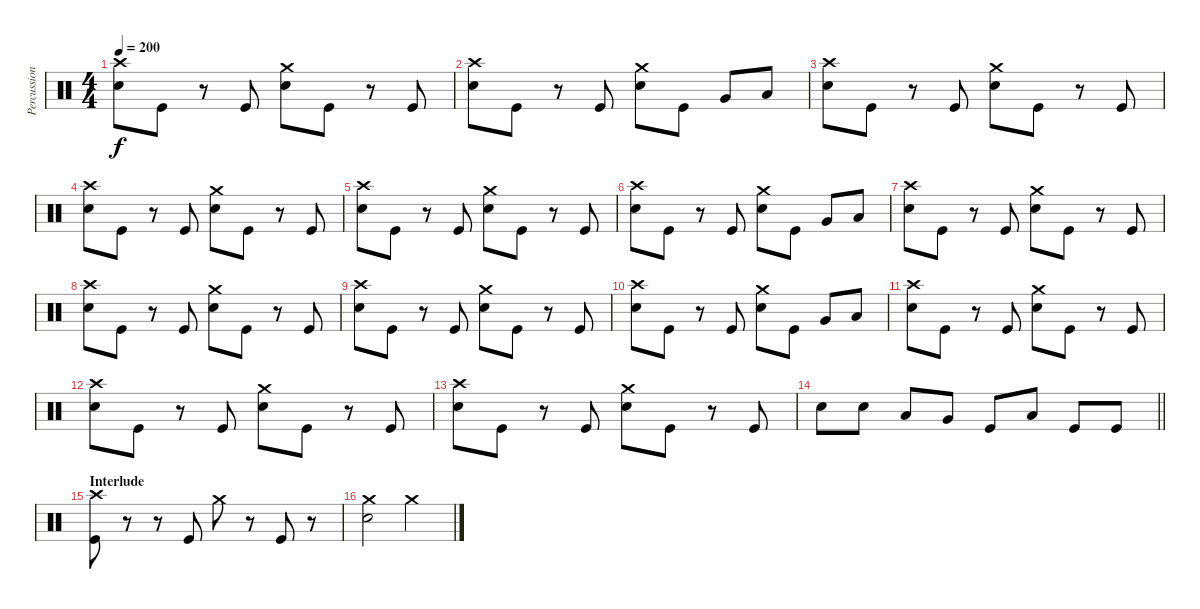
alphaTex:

\track ("Percussion" "Percussion") {instrument percussion}
\staff {score}
\articulation defaults
\ts (4 4)
\tempo 200
\clef neutral
\ks c
("Crash high (hit)" "Electric Snare (hit)").8{dy f} "Kick (hit)".8 r.8 "Kick (hit)".8 ("Crash medium (hit)" "Electric Snare (hit)").8 "Kick (hit)".8 r.8 "Kick (hit)".8 |
("Crash high (hit)" "Electric Snare (hit)").8 "Kick (hit)".8 r.8 "Kick (hit)".8 ("Crash medium (hit)" "Electric Snare (hit)").8 "Kick (hit)".8 "Very Low Tom (hit)".8 "Low Floor Tom (hit)".8 |
("Crash high (hit)" "Electric Snare (hit)").8 "Kick (hit)".8 r.8 "Kick (hit)".8 ("Crash medium (hit)" "Electric Snare (hit)").8 "Kick (hit)".8 r.8 "Kick (hit)".8 |
("Crash high (hit)" "Electric Snare (hit)").8 "Kick (hit)".8 r.8 "Kick (hit)".8 ("Crash medium (hit)" "Electric Snare (hit)").8 "Kick (hit)".8 r.8 "Kick (hit)".8 |
("Crash high (hit)" "Electric Snare (hit)").8 "Kick (hit)".8 r.8 "Kick (hit)".8 ("Crash medium (hit)" "Electric Snare (hit)").8 "Kick (hit)".8 r.8 "Kick (hit)".8 |
("Crash high (hit)" "Electric Snare (hit)").8 "Kick (hit)".8 r.8 "Kick (hit)".8 ("Crash medium (hit)" "Electric Snare (hit)").8 "Kick (hit)".8 "Very Low Tom (hit)".8 "Low Floor Tom (hit)".8 |
("Crash high (hit)" "Electric Snare (hit)").8 "Kick (hit)".8 r.8 "Kick (hit)".8 ("Crash medium (hit)" "Electric Snare (hit)").8 "Kick (hit)".8 r.8 "Kick (hit)".8 |
("Crash high (hit)" "Electric Snare (hit)").8 "Kick (hit)".8 r.8 "Kick (hit)".8 ("Crash medium (hit)" "Electric Snare (hit)").8 "Kick (hit)".8 r.8 "Kick (hit)".8 |
("Crash high (hit)" "Electric Snare (hit)").8 "Kick (hit)".8 r.8 "Kick (hit)".8 ("Crash medium (hit)" "Electric Snare (hit)").8 "Kick (hit)".8 r.8 "Kick (hit)".8 |
("Crash high (hit)" "Electric Snare (hit)").8 "Kick (hit)".8 r.8 "Kick (hit)".8 ("Crash medium (hit)" "Electric Snare (hit)").8 "Kick (hit)".8 "Very Low Tom (hit)".8 "Low Floor Tom (hit)".8 |
("Crash high (hit)" "Electric Snare (hit)").8 "Kick (hit)".8 r.8 "Kick (hit)".8 ("Crash medium (hit)" "Electric Snare (hit)").8 "Kick (hit)".8 r.8 "Kick (hit)".8 |
("Crash high (hit)" "Electric Snare (hit)").8 "Kick (hit)".8 r.8 "Kick (hit)".8 ("Crash medium (hit)" "Electric Snare (hit)").8 "Kick (hit)".8 r.8 "Kick (hit)".8 |
("Crash high (hit)" "Electric Snare (hit)").8 "Kick (hit)".8 r.8 "Kick (hit)".8 ("Crash medium (hit)" "Electric Snare (hit)").8 "Kick (hit)".8 r.8 "Kick (hit)".8 |
\barLineRight lightlight "Electric Snare (hit)".8 "Electric Snare (hit)".8 "Low Tom (hit)".8 "Very Low Tom (hit)".8 "Kick (hit)".8 "Low Floor Tom (hit)".8 "Kick (hit)".8 "Kick (hit)".8
|
\section ("" "Interlude")
("Crash high (hit)" "Kick (hit)").8 r.8 r.8 "Kick (hit)".8 "Crash medium (hit)".8 r.8 "Kick (hit)".8 r.8 |
("Crash medium (hit)" "Electric Snare (hit)").2 "Crash medium (hit)".2
